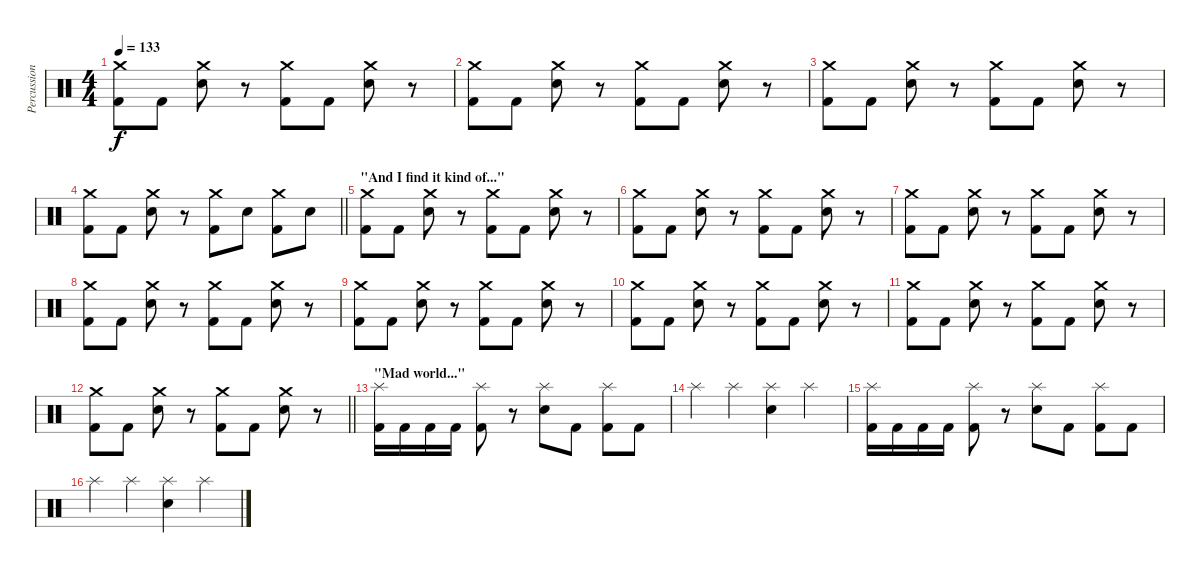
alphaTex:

\track ("Percussion" "Percussion") {instrument percussion}
\staff {score}
\articulation defaults
\ts (4 4)
\tempo 133
\clef neutral
\ks c
("Crash medium (hit)" "Kick (hit) 2").8{dy f} "Kick (hit) 2".8 ("Crash medium (hit)" "Snare (hit) 2").8 r.8 ("Crash medium (hit)" "Kick (hit) 2").8 "Kick (hit) 2".8 ("Crash medium (hit)" "Snare (hit) 2").8 r.8 |
("Crash medium (hit)" "Kick (hit) 2").8 "Kick (hit) 2".8 ("Crash medium (hit)" "Snare (hit) 2").8 r.8 ("Crash medium (hit)" "Kick (hit) 2").8 "Kick (hit) 2".8 ("Crash medium (hit)" "Snare (hit) 2").8 r.8 |
("Crash medium (hit)" "Kick (hit) 2").8 "Kick (hit) 2".8 ("Crash medium (hit)" "Snare (hit) 2").8 r.8 ("Crash medium (hit)" "Kick (hit) 2").8 "Kick (hit) 2".8 ("Crash medium (hit)" "Snare (hit) 2").8 r.8 |
\barLineRight lightlight
("Crash medium (hit)" "Kick (hit) 2").8 "Kick (hit) 2".8 ("Crash medium (hit)" "Snare (hit) 2").8 r.8 ("Crash medium (hit)" "Kick (hit) 2").8 "Snare (hit) 2".8 ("Crash medium (hit)" "Kick (hit) 2").8 "Snare (hit) 2".8 |
\section ("" "\"And I find it kind of...\"")
("Crash medium (hit)" "Kick (hit) 2").8 "Kick (hit) 2".8 ("Crash medium (hit)" "Snare (hit) 2").8 r.8 ("Crash medium (hit)" "Kick (hit) 2").8 "Kick (hit) 2".8 ("Crash medium (hit)" "Snare (hit) 2").8 r.8 |
("Crash medium (hit)" "Kick (hit) 2").8 "Kick (hit) 2".8 ("Crash medium (hit)" "Snare (hit) 2").8 r.8 ("Crash medium (hit)" "Kick (hit) 2").8 "Kick (hit) 2".8 ("Crash medium (hit)" "Snare (hit) 2").8 r.8 |
("Crash medium (hit)" "Kick (hit) 2").8 "Kick (hit) 2".8 ("Crash medium (hit)" "Snare (hit) 2").8 r.8 ("Crash medium (hit)" "Kick (hit) 2").8 "Kick (hit) 2".8 ("Crash medium (hit)" "Snare (hit) 2").8 r.8 |
("Crash medium (hit)" "Kick (hit) 2").8 "Kick (hit) 2".8 ("Crash medium (hit)" "Snare (hit) 2").8 r.8 ("Crash medium (hit)" "Kick (hit) 2").8 "Kick (hit) 2".8 ("Crash medium (hit)" "Snare (hit) 2").8 r.8 |
("Crash medium (hit)" "Kick (hit) 2").8 "Kick (hit) 2".8 ("Crash medium (hit)" "Snare (hit) 2").8 r.8 ("Crash medium (hit)" "Kick (hit) 2").8 "Kick (hit) 2".8 ("Crash medium (hit)" "Snare (hit) 2").8 r.8 |
("Crash medium (hit)" "Kick (hit) 2").8 "Kick (hit) 2".8 ("Crash medium (hit)" "Snare (hit) 2").8 r.8 ("Crash medium (hit)" "Kick (hit) 2").8 "Kick (hit) 2".8 ("Crash medium (hit)" "Snare (hit) 2").8 r.8 |
("Crash medium (hit)" "Kick (hit) 2").8 "Kick (hit) 2".8 ("Crash medium (hit)" "Snare (hit) 2").8 r.8 ("Crash medium (hit)" "Kick (hit) 2").8 "Kick (hit) 2".8 ("Crash medium (hit)" "Snare (hit) 2").8 r.8 |
\barLineRight lightlight
("Crash medium (hit)" "Kick (hit) 2").8 "Kick (hit) 2".8 ("Crash medium (hit)" "Snare (hit) 2").8 r.8 ("Crash medium (hit)" "Kick (hit) 2").8 "Kick (hit) 2".8 ("Crash medium (hit)" "Snare (hit) 2").8 r.8 |
\section ("" "\"Mad world...\"")
("Splash (hit)" "Kick (hit) 2").16 "Kick (hit) 2".16 "Kick (hit) 2".16 "Kick (hit) 2".16 ("Splash (hit)" "Kick (hit) 2").8 r.8 ("Splash (hit)" "Snare (hit) 2").8 "Kick (hit) 2".8 ("Splash (hit)" "Kick (hit) 2").8 "Kick (hit) 2".8 |
"Splash (hit)".4 "Splash (hit)".4 ("Splash (hit)" "Snare (hit) 2").4 "Splash (hit)".4 |
("Splash (hit)" "Kick (hit) 2").16 "Kick (hit) 2".16 "Kick (hit) 2".16 "Kick (hit) 2".16 ("Splash (hit)" "Kick (hit) 2").8 r.8 ("Splash (hit)" "Snare (hit) 2").8 "Kick (hit) 2".8 ("Splash (hit)" "Kick (hit) 2").8 "Kick (hit) 2".8 |
"Splash (hit)".4 "Splash (hit)".4 ("Splash (hit)" "Snare (hit) 2").4 "Splash (hit)".4
